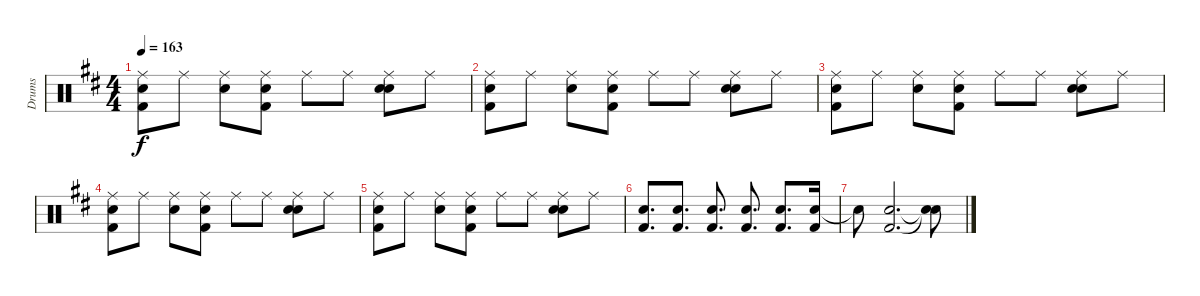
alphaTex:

\track ("Drums" "Drums") {instrument percussion}
\staff {score}
\articulation defaults
\ts (4 4)
\tempo 163
\clef neutral
\ks d
("Ride (middle)" "Snare (hit) 2" "Kick (hit) 2").8{dy f} "Ride (middle)".8 ("Ride (middle)" "Hand Clap (hit)").8 ("Ride (middle)" "Snare (hit) 2" "Kick (hit) 2").8 "Ride (middle)".8 "Ride (middle)".8 ("Ride (middle)" "Hand Clap (hit)" "Snare (hit) 2").8 "Ride (middle)".8 |
("Ride (middle)" "Snare (hit) 2" "Kick (hit) 2").8 "Ride (middle)".8 ("Ride (middle)" "Hand Clap (hit)").8 ("Ride (middle)" "Snare (hit) 2" "Kick (hit) 2").8 "Ride (middle)".8 "Ride (middle)".8 ("Ride (middle)" "Hand Clap (hit)" "Snare (hit) 2").8 "Ride (middle)".8 |
("Ride (middle)" "Snare (hit) 2" "Kick (hit) 2").8 "Ride (middle)".8 ("Ride (middle)" "Hand Clap (hit)").8 ("Ride (middle)" "Snare (hit) 2" "Kick (hit) 2").8 "Ride (middle)".8 "Ride (middle)".8 ("Ride (middle)" "Hand Clap (hit)" "Snare (hit) 2").8 "Ride (middle)".8 |
("Ride (middle)" "Snare (hit) 2" "Kick (hit) 2").8 "Ride (middle)".8 ("Ride (middle)" "Hand Clap (hit)").8 ("Ride (middle)" "Snare (hit) 2" "Kick (hit) 2").8 "Ride (middle)".8 "Ride (middle)".8 ("Ride (middle)" "Hand Clap (hit)" "Snare (hit) 2").8 "Ride (middle)".8 |
("Ride (middle)" "Snare (hit) 2" "Kick (hit) 2").8 "Ride (middle)".8 ("Ride (middle)" "Hand Clap (hit)").8 ("Ride (middle)" "Snare (hit) 2" "Kick (hit) 2").8 "Ride (middle)".8 "Ride (middle)".8 ("Ride (middle)" "Hand Clap (hit)" "Snare (hit) 2").8 "Ride (middle)".8 |
("Snare (hit) 2" "Kick (hit) 2").8{d} ("Snare (hit) 2" "Kick (hit) 2").8{d} ("Snare (hit) 2" "Kick (hit) 2").8{d} ("Snare (hit) 2" "Kick (hit) 2").8{d} ("Snare (hit) 2" "Kick (hit) 2").8{d} ("Snare (hit) 2" "Kick (hit) 2").16 |
"Snare (hit) 2"{t}.8 ("Snare (hit) 2" "Kick (hit) 2").2{d} ("Snare (hit)"{t} "Snare (hit)"{t}).8
